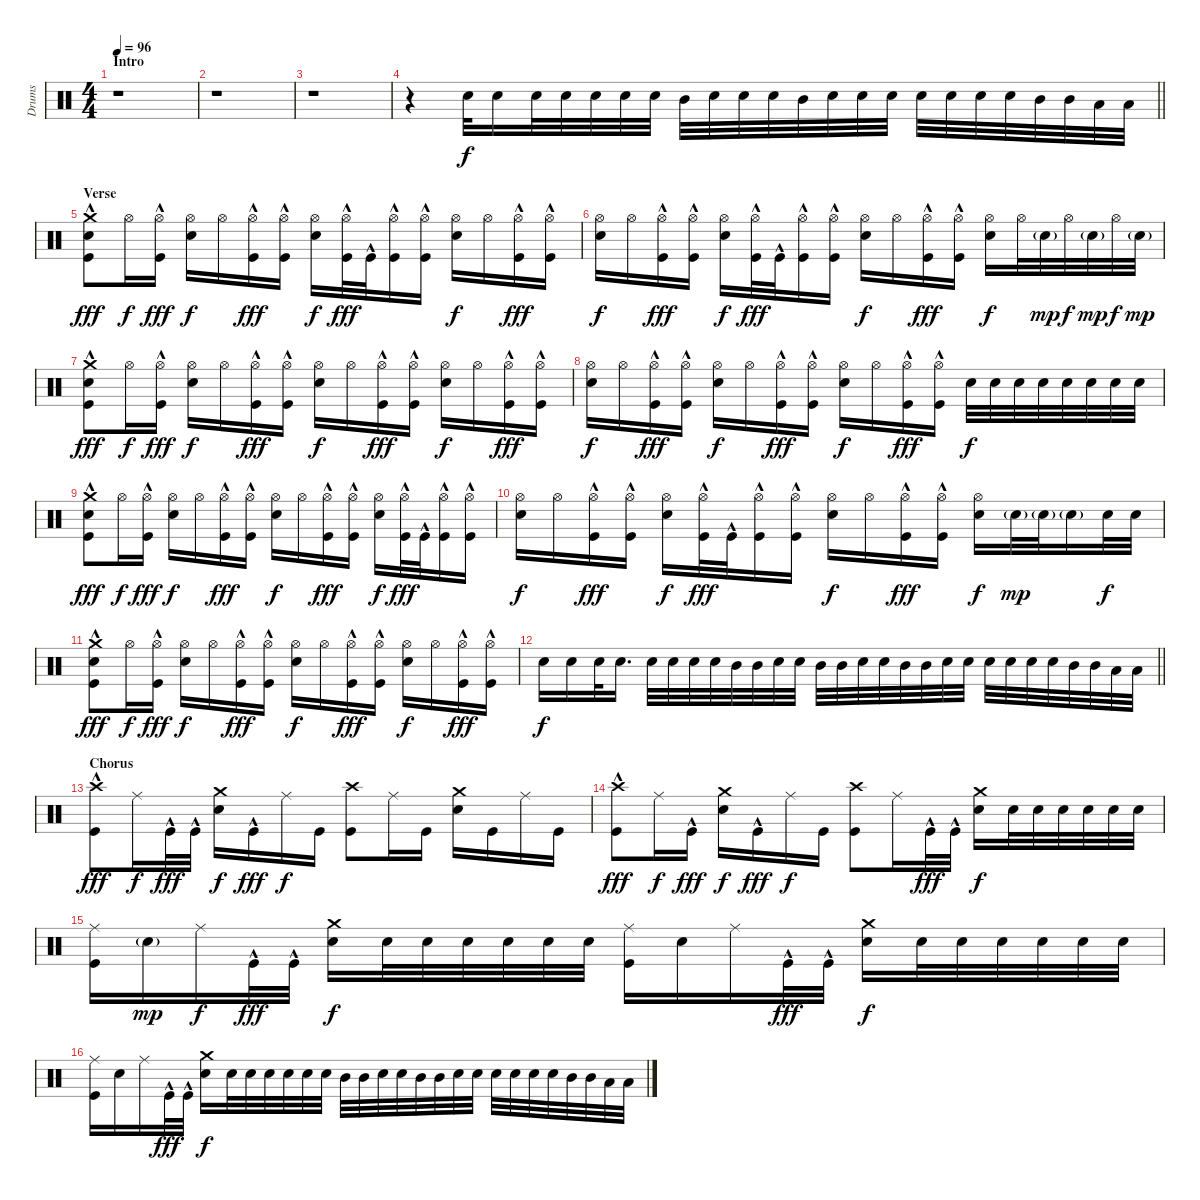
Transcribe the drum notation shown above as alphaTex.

\track ("Drums" "Drums") {instrument percussion}
\staff {score}
\articulation defaults
\ts (4 4)
\section ("" "Intro")
\tempo 96
\clef neutral
\ks c
r.1{dy f} |
r.1 |
r.1 |
\barLineRight lightlight
r.4 "Electric Snare (hit)".32 "Electric Snare (hit)".16 "Electric Snare (hit)".32 "Electric Snare (hit)".32 "Electric Snare (hit)".32 "Electric Snare (hit)".32 "Electric Snare (hit)".32 "Mid Tom (hit)".32 "Electric Snare (hit)".32 "Electric Snare (hit)".32 "Electric Snare (hit)".32 "Mid Tom (hit)".32 "Electric Snare (hit)".32 "Electric Snare (hit)".32 "Electric Snare (hit)".32 "Electric Snare (hit)".32 "Electric Snare (hit)".32 "Electric Snare (hit)".32 "Electric Snare (hit)".32 "Mid Tom (hit)".32 "Mid Tom (hit)".32 "Low Tom (hit)".32 "Low Tom (hit)".32 |
\section ("" "Verse")
("Crash medium (hit)" "Electric Snare (hit)" "Kick (hit)"{hac}).8{dy fff} "Hi-Hat (open)".16{dy f} ("Hi-Hat (open)" "Kick (hit)"{hac}).16{dy fff} ("Hi-Hat (open)" "Electric Snare (hit)").16{dy f} "Hi-Hat (open)".16 ("Hi-Hat (open)" "Kick (hit)"{hac}).16{dy fff} ("Hi-Hat (open)" "Kick (hit)"{hac}).16 ("Hi-Hat (open)" "Electric Snare (hit)").16{dy f} ("Hi-Hat (open)" "Kick (hit)"{hac}).32{dy fff} "Kick (hit)"{hac}.32 ("Hi-Hat (open)" "Kick (hit)"{hac}).16 ("Hi-Hat (open)" "Kick (hit)"{hac}).16 ("Hi-Hat (open)" "Electric Snare (hit)").16{dy f} "Hi-Hat (open)".16 ("Hi-Hat (open)" "Kick (hit)"{hac}).16{dy fff} ("Hi-Hat (open)" "Kick (hit)"{hac}).16 |
("Hi-Hat (open)" "Electric Snare (hit)").16{dy f} "Hi-Hat (open)".16 ("Hi-Hat (open)" "Kick (hit)"{hac}).16{dy fff} ("Hi-Hat (open)" "Kick (hit)"{hac}).16 ("Hi-Hat (open)" "Electric Snare (hit)").16{dy f} ("Hi-Hat (open)" "Kick (hit)"{hac}).32{dy fff} "Kick (hit)"{hac}.32 ("Hi-Hat (open)" "Kick (hit)"{hac}).16 ("Hi-Hat (open)" "Kick (hit)"{hac}).16 ("Hi-Hat (open)" "Electric Snare (hit)").16{dy f} "Hi-Hat (open)".16 ("Hi-Hat (open)" "Kick (hit)"{hac}).16{dy fff} ("Hi-Hat (open)" "Kick (hit)"{hac}).16 ("Hi-Hat (open)" "Electric Snare (hit)").16{dy f} "Hi-Hat (open)".32 "Electric Snare (hit)"{g}.32{dy mp} "Hi-Hat (open)".32{dy f} "Electric Snare (hit)"{g}.32{dy mp} "Hi-Hat (open)".32{dy f} "Electric Snare (hit)"{g}.32{dy mp} |
("Crash medium (hit)" "Electric Snare (hit)" "Kick (hit)"{hac}).8{dy fff} "Hi-Hat (open)".16{dy f} ("Hi-Hat (open)" "Kick (hit)"{hac}).16{dy fff} ("Hi-Hat (open)" "Electric Snare (hit)").16{dy f} "Hi-Hat (open)".16 ("Hi-Hat (open)" "Kick (hit)"{hac}).16{dy fff} ("Hi-Hat (open)" "Kick (hit)"{hac}).16 ("Hi-Hat (open)" "Electric Snare (hit)").16{dy f} "Hi-Hat (open)".16 ("Hi-Hat (open)" "Kick (hit)"{hac}).16{dy fff} ("Hi-Hat (open)" "Kick (hit)"{hac}).16 ("Hi-Hat (open)" "Electric Snare (hit)").16{dy f} "Hi-Hat (open)".16 ("Hi-Hat (open)" "Kick (hit)"{hac}).16{dy fff} ("Hi-Hat (open)" "Kick (hit)"{hac}).16 |
("Hi-Hat (open)" "Electric Snare (hit)").16{dy f} "Hi-Hat (open)".16 ("Hi-Hat (open)" "Kick (hit)"{hac}).16{dy fff} ("Hi-Hat (open)" "Kick (hit)"{hac}).16 ("Hi-Hat (open)" "Electric Snare (hit)").16{dy f} "Hi-Hat (open)".16 ("Hi-Hat (open)" "Kick (hit)"{hac}).16{dy fff} ("Hi-Hat (open)" "Kick (hit)"{hac}).16 ("Hi-Hat (open)" "Electric Snare (hit)").16{dy f} "Hi-Hat (open)".16 ("Hi-Hat (open)" "Kick (hit)"{hac}).16{dy fff} ("Hi-Hat (open)" "Kick (hit)"{hac}).16 "Electric Snare (hit)".32{dy f} "Electric Snare (hit)".32 "Electric Snare (hit)".32 "Electric Snare (hit)".32 "Electric Snare (hit)".32 "Electric Snare (hit)".32 "Electric Snare (hit)".32 "Electric Snare (hit)".32 |
("Crash medium (hit)" "Electric Snare (hit)" "Kick (hit)"{hac}).8{dy fff} "Hi-Hat (open)".16{dy f} ("Hi-Hat (open)" "Kick (hit)"{hac}).16{dy fff} ("Hi-Hat (open)" "Electric Snare (hit)").16{dy f} "Hi-Hat (open)".16 ("Hi-Hat (open)" "Kick (hit)"{hac}).16{dy fff} ("Hi-Hat (open)" "Kick (hit)"{hac}).16 ("Hi-Hat (open)" "Electric Snare (hit)").16{dy f} "Hi-Hat (open)".16 ("Hi-Hat (open)" "Kick (hit)"{hac}).16{dy fff} ("Hi-Hat (open)" "Kick (hit)"{hac}).16 ("Hi-Hat (open)" "Electric Snare (hit)").16{dy f} ("Hi-Hat (open)" "Kick (hit)"{hac}).32{dy fff} "Kick (hit)"{hac}.32 ("Hi-Hat (open)" "Kick (hit)"{hac}).16 ("Hi-Hat (open)" "Kick (hit)"{hac}).16 |
("Hi-Hat (open)" "Electric Snare (hit)").16{dy f} "Hi-Hat (open)".16 ("Hi-Hat (open)" "Kick (hit)"{hac}).16{dy fff} ("Hi-Hat (open)" "Kick (hit)"{hac}).16 ("Hi-Hat (open)" "Electric Snare (hit)").16{dy f} ("Hi-Hat (open)" "Kick (hit)"{hac}).32{dy fff} "Kick (hit)"{hac}.32 ("Hi-Hat (open)" "Kick (hit)"{hac}).16 ("Hi-Hat (open)" "Kick (hit)"{hac}).16 ("Hi-Hat (open)" "Electric Snare (hit)").16{dy f} "Hi-Hat (open)".16 ("Hi-Hat (open)" "Kick (hit)"{hac}).16{dy fff} ("Hi-Hat (open)" "Kick (hit)"{hac}).16 ("Hi-Hat (open)" "Electric Snare (hit)").16{dy f} "Electric Snare (hit)"{g}.32{dy mp} "Electric Snare (hit)"{g}.32 "Electric Snare (hit)"{g}.16 "Electric Snare (hit)".32{dy f} "Electric Snare (hit)".32 |
("Crash medium (hit)" "Electric Snare (hit)" "Kick (hit)"{hac}).8{dy fff} "Hi-Hat (open)".16{dy f} ("Hi-Hat (open)" "Kick (hit)"{hac}).16{dy fff} ("Hi-Hat (open)" "Electric Snare (hit)").16{dy f} "Hi-Hat (open)".16 ("Hi-Hat (open)" "Kick (hit)"{hac}).16{dy fff} ("Hi-Hat (open)" "Kick (hit)"{hac}).16 ("Hi-Hat (open)" "Electric Snare (hit)").16{dy f} "Hi-Hat (open)".16 ("Hi-Hat (open)" "Kick (hit)"{hac}).16{dy fff} ("Hi-Hat (open)" "Kick (hit)"{hac}).16 ("Hi-Hat (open)" "Electric Snare (hit)").16{dy f} "Hi-Hat (open)".16 ("Hi-Hat (open)" "Kick (hit)"{hac}).16{dy fff} ("Hi-Hat (open)" "Kick (hit)"{hac}).16 |
\barLineRight lightlight "Electric Snare (hit)".16{dy f} "Electric Snare (hit)".16 "Electric Snare (hit)".32 "Electric Snare (hit)".16{d} "Electric Snare (hit)".32 "Electric Snare (hit)".32 "Electric Snare (hit)".32 "Electric Snare (hit)".32 "Mid Tom (hit)".32 "Mid Tom (hit)".32 "Electric Snare (hit)".32 "Electric Snare (hit)".32 "Mid Tom (hit)".32 "Mid Tom (hit)".32 "Electric Snare (hit)".32 "Electric Snare (hit)".32 "Mid Tom (hit)".32 "Mid Tom (hit)".32 "Electric Snare (hit)".32 "Electric Snare (hit)".32 "Electric Snare (hit)".32 "Electric Snare (hit)".32 "Electric Snare (hit)".32 "Electric Snare (hit)".32 "Mid Tom (hit)".32 "Mid Tom (hit)".32 "Low Tom (hit)".32 "Low Tom (hit)".32
|
\section ("" "Chorus")
("Crash high (hit)" "Kick (hit)"{hac}).8{dy fff} "Ride (middle)".16{dy f} "Kick (hit)"{hac}.32{dy fff} "Kick (hit)"{hac}.32 ("Crash medium (hit)" "Electric Snare (hit)").16{dy f} "Kick (hit)"{hac}.16{dy fff} "Ride (middle)".16{dy f} "Kick (hit)".16 ("Crash high (hit)" "Kick (hit)").8 "Ride (middle)".16 "Kick (hit)".16 ("Crash medium (hit)" "Electric Snare (hit)").16 "Kick (hit)".16 "Ride (middle)".16 "Kick (hit)".16 |
("Crash high (hit)" "Kick (hit)"{hac}).8{dy fff} "Ride (middle)".16{dy f} "Kick (hit)"{hac}.16{dy fff} ("Crash medium (hit)" "Electric Snare (hit)").16{dy f} "Kick (hit)"{hac}.16{dy fff} "Ride (middle)".16{dy f} "Kick (hit)".16 ("Crash high (hit)" "Kick (hit)").8 "Ride (middle)".16 "Kick (hit)"{hac}.32{dy fff} "Kick (hit)"{hac}.32 ("Crash medium (hit)" "Electric Snare (hit)").16{dy f} "Electric Snare (hit)".32 "Electric Snare (hit)".32 "Electric Snare (hit)".32 "Electric Snare (hit)".32 "Electric Snare (hit)".32 "Electric Snare (hit)".32 |
("Ride (middle)" "Kick (hit)").16 "Electric Snare (hit)"{g}.16{dy mp} "Ride (middle)".16{dy f} "Kick (hit)"{hac}.32{dy fff} "Kick (hit)"{hac}.32 ("Crash medium (hit)" "Electric Snare (hit)").16{dy f} "Electric Snare (hit)".32 "Electric Snare (hit)".32 "Electric Snare (hit)".32 "Electric Snare (hit)".32 "Electric Snare (hit)".32 "Electric Snare (hit)".32 ("Ride (middle)" "Kick (hit)").16 "Electric Snare (hit)".16 "Ride (middle)".16 "Kick (hit)"{hac}.32{dy fff} "Kick (hit)"{hac}.32 ("Crash medium (hit)" "Electric Snare (hit)").16{dy f} "Electric Snare (hit)".32 "Electric Snare (hit)".32 "Electric Snare (hit)".32 "Electric Snare (hit)".32 "Electric Snare (hit)".32 "Electric Snare (hit)".32 |
("Ride (middle)" "Kick (hit)").16 "Electric Snare (hit)".16 "Ride (middle)".16 "Kick (hit)"{hac}.32{dy fff} "Kick (hit)"{hac}.32 ("Crash medium (hit)" "Electric Snare (hit)").16{dy f} "Electric Snare (hit)".32 "Electric Snare (hit)".32 "Electric Snare (hit)".32 "Electric Snare (hit)".32 "Electric Snare (hit)".32 "Electric Snare (hit)".32 "Mid Tom (hit)".32 "Mid Tom (hit)".32 "Electric Snare (hit)".32 "Electric Snare (hit)".32 "Mid Tom (hit)".32 "Mid Tom (hit)".32 "Electric Snare (hit)".32 "Electric Snare (hit)".32 "Electric Snare (hit)".32 "Electric Snare (hit)".32 "Electric Snare (hit)".32 "Electric Snare (hit)".32 "Mid Tom (hit)".32 "Mid Tom (hit)".32 "Low Tom (hit)".32 "Low Tom (hit)".32
